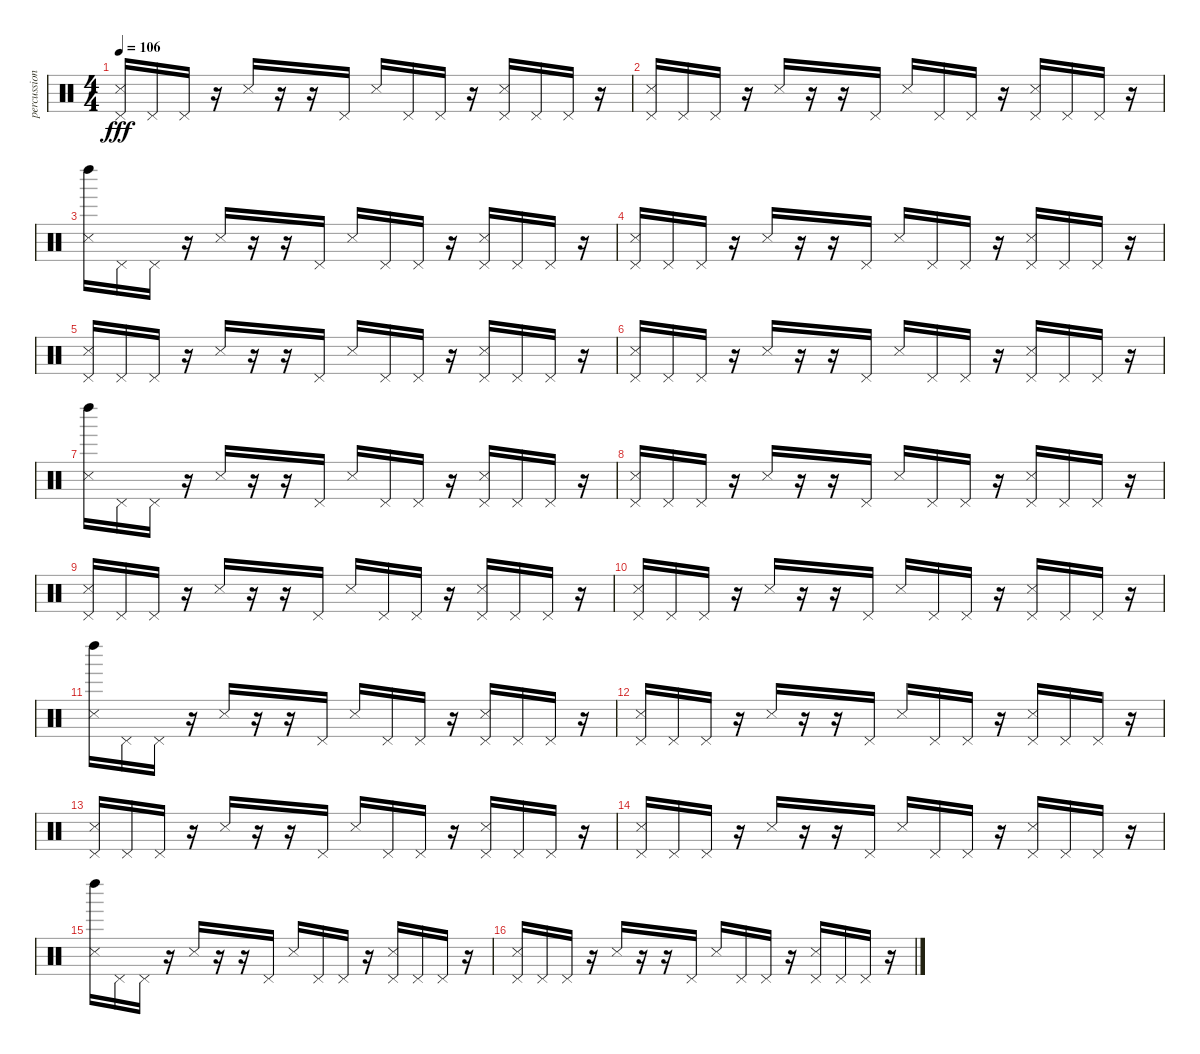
\track ("percussions" "percussion") {instrument percussion}
\staff {score}
\articulation defaults
\ts (4 4)
\tempo 106
\clef neutral
\ks c
("Pedal Hi-Hat (hit)" "Snare (side stick) 3").16{dy fff} "Pedal Hi-Hat (hit)".16 "Pedal Hi-Hat (hit)".16 r.16 "Snare (side stick) 3".16 r.16 r.16 "Pedal Hi-Hat (hit)".16 "Snare (side stick) 3".16 "Pedal Hi-Hat (hit)".16 "Pedal Hi-Hat (hit)".16 r.16 ("Pedal Hi-Hat (hit)" "Snare (side stick) 3").16 "Pedal Hi-Hat (hit)".16 "Pedal Hi-Hat (hit)".16 r.16 |
("Pedal Hi-Hat (hit)" "Snare (side stick) 3").16 "Pedal Hi-Hat (hit)".16 "Pedal Hi-Hat (hit)".16 r.16 "Snare (side stick) 3".16 r.16 r.16 "Pedal Hi-Hat (hit)".16 "Snare (side stick) 3".16 "Pedal Hi-Hat (hit)".16 "Pedal Hi-Hat (hit)".16 r.16 ("Pedal Hi-Hat (hit)" "Snare (side stick) 3").16 "Pedal Hi-Hat (hit)".16 "Pedal Hi-Hat (hit)".16 r.16 |
("Left Maraca (hit)" "Snare (side stick) 3").16 "Pedal Hi-Hat (hit)".16 "Pedal Hi-Hat (hit)".16 r.16 "Snare (side stick) 3".16 r.16 r.16 "Pedal Hi-Hat (hit)".16 "Snare (side stick) 3".16 "Pedal Hi-Hat (hit)".16 "Pedal Hi-Hat (hit)".16 r.16 ("Pedal Hi-Hat (hit)" "Snare (side stick) 3").16 "Pedal Hi-Hat (hit)".16 "Pedal Hi-Hat (hit)".16 r.16 |
("Pedal Hi-Hat (hit)" "Snare (side stick) 3").16 "Pedal Hi-Hat (hit)".16 "Pedal Hi-Hat (hit)".16 r.16 "Snare (side stick) 3".16 r.16 r.16 "Pedal Hi-Hat (hit)".16 "Snare (side stick) 3".16 "Pedal Hi-Hat (hit)".16 "Pedal Hi-Hat (hit)".16 r.16 ("Pedal Hi-Hat (hit)" "Snare (side stick) 3").16 "Pedal Hi-Hat (hit)".16 "Pedal Hi-Hat (hit)".16 r.16 |
("Pedal Hi-Hat (hit)" "Snare (side stick) 3").16 "Pedal Hi-Hat (hit)".16 "Pedal Hi-Hat (hit)".16 r.16 "Snare (side stick) 3".16 r.16 r.16 "Pedal Hi-Hat (hit)".16 "Snare (side stick) 3".16 "Pedal Hi-Hat (hit)".16 "Pedal Hi-Hat (hit)".16 r.16 ("Pedal Hi-Hat (hit)" "Snare (side stick) 3").16 "Pedal Hi-Hat (hit)".16 "Pedal Hi-Hat (hit)".16 r.16 |
("Pedal Hi-Hat (hit)" "Snare (side stick) 3").16 "Pedal Hi-Hat (hit)".16 "Pedal Hi-Hat (hit)".16 r.16 "Snare (side stick) 3".16 r.16 r.16 "Pedal Hi-Hat (hit)".16 "Snare (side stick) 3".16 "Pedal Hi-Hat (hit)".16 "Pedal Hi-Hat (hit)".16 r.16 ("Pedal Hi-Hat (hit)" "Snare (side stick) 3").16 "Pedal Hi-Hat (hit)".16 "Pedal Hi-Hat (hit)".16 r.16 |
("Left Maraca (hit)" "Snare (side stick) 3").16 "Pedal Hi-Hat (hit)".16 "Pedal Hi-Hat (hit)".16 r.16 "Snare (side stick) 3".16 r.16 r.16 "Pedal Hi-Hat (hit)".16 "Snare (side stick) 3".16 "Pedal Hi-Hat (hit)".16 "Pedal Hi-Hat (hit)".16 r.16 ("Pedal Hi-Hat (hit)" "Snare (side stick) 3").16 "Pedal Hi-Hat (hit)".16 "Pedal Hi-Hat (hit)".16 r.16 |
("Pedal Hi-Hat (hit)" "Snare (side stick) 3").16 "Pedal Hi-Hat (hit)".16 "Pedal Hi-Hat (hit)".16 r.16 "Snare (side stick) 3".16 r.16 r.16 "Pedal Hi-Hat (hit)".16 "Snare (side stick) 3".16 "Pedal Hi-Hat (hit)".16 "Pedal Hi-Hat (hit)".16 r.16 ("Pedal Hi-Hat (hit)" "Snare (side stick) 3").16 "Pedal Hi-Hat (hit)".16 "Pedal Hi-Hat (hit)".16 r.16 |
("Pedal Hi-Hat (hit)" "Snare (side stick) 3").16 "Pedal Hi-Hat (hit)".16 "Pedal Hi-Hat (hit)".16 r.16 "Snare (side stick) 3".16 r.16 r.16 "Pedal Hi-Hat (hit)".16 "Snare (side stick) 3".16 "Pedal Hi-Hat (hit)".16 "Pedal Hi-Hat (hit)".16 r.16 ("Pedal Hi-Hat (hit)" "Snare (side stick) 3").16 "Pedal Hi-Hat (hit)".16 "Pedal Hi-Hat (hit)".16 r.16 |
("Pedal Hi-Hat (hit)" "Snare (side stick) 3").16 "Pedal Hi-Hat (hit)".16 "Pedal Hi-Hat (hit)".16 r.16 "Snare (side stick) 3".16 r.16 r.16 "Pedal Hi-Hat (hit)".16 "Snare (side stick) 3".16 "Pedal Hi-Hat (hit)".16 "Pedal Hi-Hat (hit)".16 r.16 ("Pedal Hi-Hat (hit)" "Snare (side stick) 3").16 "Pedal Hi-Hat (hit)".16 "Pedal Hi-Hat (hit)".16 r.16 |
("Left Maraca (hit)" "Snare (side stick) 3").16 "Pedal Hi-Hat (hit)".16 "Pedal Hi-Hat (hit)".16 r.16 "Snare (side stick) 3".16 r.16 r.16 "Pedal Hi-Hat (hit)".16 "Snare (side stick) 3".16 "Pedal Hi-Hat (hit)".16 "Pedal Hi-Hat (hit)".16 r.16 ("Pedal Hi-Hat (hit)" "Snare (side stick) 3").16 "Pedal Hi-Hat (hit)".16 "Pedal Hi-Hat (hit)".16 r.16 |
("Pedal Hi-Hat (hit)" "Snare (side stick) 3").16 "Pedal Hi-Hat (hit)".16 "Pedal Hi-Hat (hit)".16 r.16 "Snare (side stick) 3".16 r.16 r.16 "Pedal Hi-Hat (hit)".16 "Snare (side stick) 3".16 "Pedal Hi-Hat (hit)".16 "Pedal Hi-Hat (hit)".16 r.16 ("Pedal Hi-Hat (hit)" "Snare (side stick) 3").16 "Pedal Hi-Hat (hit)".16 "Pedal Hi-Hat (hit)".16 r.16 |
("Pedal Hi-Hat (hit)" "Snare (side stick) 3").16 "Pedal Hi-Hat (hit)".16 "Pedal Hi-Hat (hit)".16 r.16 "Snare (side stick) 3".16 r.16 r.16 "Pedal Hi-Hat (hit)".16 "Snare (side stick) 3".16 "Pedal Hi-Hat (hit)".16 "Pedal Hi-Hat (hit)".16 r.16 ("Pedal Hi-Hat (hit)" "Snare (side stick) 3").16 "Pedal Hi-Hat (hit)".16 "Pedal Hi-Hat (hit)".16 r.16 |
("Pedal Hi-Hat (hit)" "Snare (side stick) 3").16 "Pedal Hi-Hat (hit)".16 "Pedal Hi-Hat (hit)".16 r.16 "Snare (side stick) 3".16 r.16 r.16 "Pedal Hi-Hat (hit)".16 "Snare (side stick) 3".16 "Pedal Hi-Hat (hit)".16 "Pedal Hi-Hat (hit)".16 r.16 ("Pedal Hi-Hat (hit)" "Snare (side stick) 3").16 "Pedal Hi-Hat (hit)".16 "Pedal Hi-Hat (hit)".16 r.16 |
("Left Maraca (hit)" "Snare (side stick) 3").16 "Pedal Hi-Hat (hit)".16 "Pedal Hi-Hat (hit)".16 r.16 "Snare (side stick) 3".16 r.16 r.16 "Pedal Hi-Hat (hit)".16 "Snare (side stick) 3".16 "Pedal Hi-Hat (hit)".16 "Pedal Hi-Hat (hit)".16 r.16 ("Pedal Hi-Hat (hit)" "Snare (side stick) 3").16 "Pedal Hi-Hat (hit)".16 "Pedal Hi-Hat (hit)".16 r.16 |
("Pedal Hi-Hat (hit)" "Snare (side stick) 3").16 "Pedal Hi-Hat (hit)".16 "Pedal Hi-Hat (hit)".16 r.16 "Snare (side stick) 3".16 r.16 r.16 "Pedal Hi-Hat (hit)".16 "Snare (side stick) 3".16 "Pedal Hi-Hat (hit)".16 "Pedal Hi-Hat (hit)".16 r.16 ("Pedal Hi-Hat (hit)" "Snare (side stick) 3").16 "Pedal Hi-Hat (hit)".16 "Pedal Hi-Hat (hit)".16 r.16
